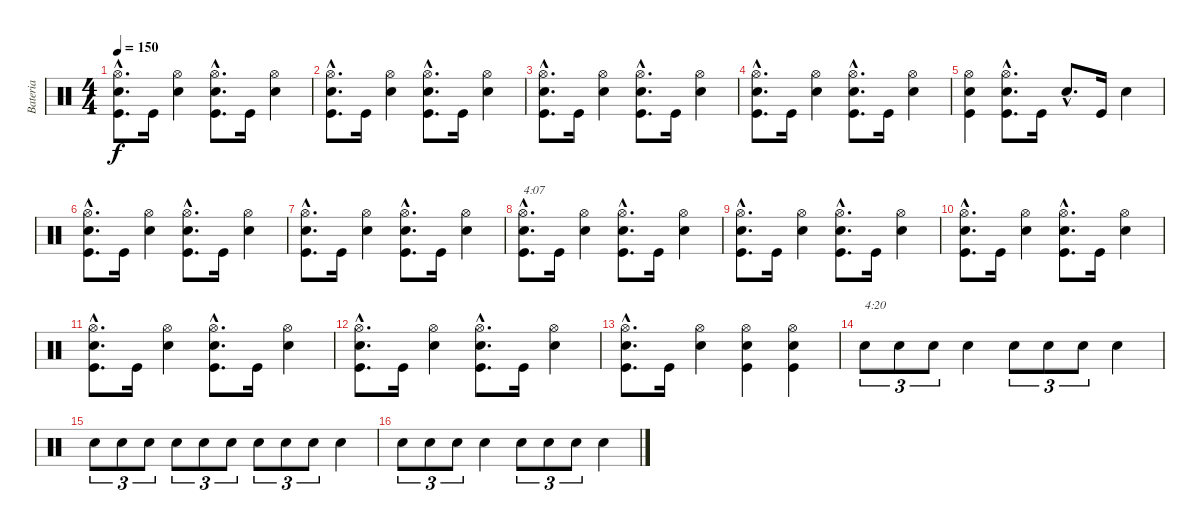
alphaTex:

\track ("Bateria" "Bateria") {instrument percussion}
\staff {score}
\articulation defaults
\ts (4 4)
\tempo 150
\clef neutral
\ks c
("Kick (hit)"{hac} "Snare (hit) 2"{hac} "Hi-Hat (open)"{hac}).8{d dy f} "Kick (hit)".16 ("Snare (hit) 2" "Hi-Hat (open)").4 ("Kick (hit)"{hac} "Snare (hit) 2"{hac} "Hi-Hat (open)"{hac}).8{d} "Kick (hit)".16 ("Snare (hit) 2" "Hi-Hat (open)").4 |
("Kick (hit)"{hac} "Snare (hit) 2"{hac} "Hi-Hat (open)"{hac}).8{d} "Kick (hit)".16 ("Snare (hit) 2" "Hi-Hat (open)").4 ("Kick (hit)"{hac} "Snare (hit) 2"{hac} "Hi-Hat (open)"{hac}).8{d} "Kick (hit)".16 ("Snare (hit) 2" "Hi-Hat (open)").4 |
("Kick (hit)"{hac} "Snare (hit) 2"{hac} "Hi-Hat (open)"{hac}).8{d} "Kick (hit)".16 ("Snare (hit) 2" "Hi-Hat (open)").4 ("Kick (hit)"{hac} "Snare (hit) 2"{hac} "Hi-Hat (open)"{hac}).8{d} "Kick (hit)".16 ("Snare (hit) 2" "Hi-Hat (open)").4 |
("Kick (hit)"{hac} "Snare (hit) 2"{hac} "Hi-Hat (open)"{hac}).8{d} "Kick (hit)".16 ("Snare (hit) 2" "Hi-Hat (open)").4 ("Kick (hit)"{hac} "Snare (hit) 2"{hac} "Hi-Hat (open)"{hac}).8{d} "Kick (hit)".16 ("Snare (hit) 2" "Hi-Hat (open)").4 |
("Kick (hit)" "Snare (hit) 2" "Hi-Hat (open)").4 ("Kick (hit)"{hac} "Snare (hit) 2"{hac} "Hi-Hat (open)"{hac}).8{d} "Kick (hit)".16 "Snare (hit) 2"{hac}.8{d} "Kick (hit)".16 "Snare (hit) 2".4 |
("Kick (hit)"{hac} "Snare (hit) 2"{hac} "Hi-Hat (open)"{hac}).8{d} "Kick (hit)".16 ("Snare (hit) 2" "Hi-Hat (open)").4 ("Kick (hit)"{hac} "Snare (hit) 2"{hac} "Hi-Hat (open)"{hac}).8{d} "Kick (hit)".16 ("Snare (hit) 2" "Hi-Hat (open)").4 |
("Kick (hit)"{hac} "Snare (hit) 2"{hac} "Hi-Hat (open)"{hac}).8{d} "Kick (hit)".16 ("Snare (hit) 2" "Hi-Hat (open)").4 ("Kick (hit)"{hac} "Snare (hit) 2"{hac} "Hi-Hat (open)"{hac}).8{d} "Kick (hit)".16 ("Snare (hit) 2" "Hi-Hat (open)").4 |
("Kick (hit)"{hac} "Snare (hit) 2"{hac} "Hi-Hat (open)"{hac}).8{d txt "4:07"} "Kick (hit)".16 ("Snare (hit) 2" "Hi-Hat (open)").4 ("Kick (hit)"{hac} "Snare (hit) 2"{hac} "Hi-Hat (open)"{hac}).8{d} "Kick (hit)".16 ("Snare (hit) 2" "Hi-Hat (open)").4 |
("Kick (hit)"{hac} "Snare (hit) 2"{hac} "Hi-Hat (open)"{hac}).8{d} "Kick (hit)".16 ("Snare (hit) 2" "Hi-Hat (open)").4 ("Kick (hit)"{hac} "Snare (hit) 2"{hac} "Hi-Hat (open)"{hac}).8{d} "Kick (hit)".16 ("Snare (hit) 2" "Hi-Hat (open)").4 |
("Kick (hit)"{hac} "Snare (hit) 2"{hac} "Hi-Hat (open)"{hac}).8{d} "Kick (hit)".16 ("Snare (hit) 2" "Hi-Hat (open)").4 ("Kick (hit)"{hac} "Snare (hit) 2"{hac} "Hi-Hat (open)"{hac}).8{d} "Kick (hit)".16 ("Snare (hit) 2" "Hi-Hat (open)").4 |
("Kick (hit)"{hac} "Snare (hit) 2"{hac} "Hi-Hat (open)"{hac}).8{d} "Kick (hit)".16 ("Snare (hit) 2" "Hi-Hat (open)").4 ("Kick (hit)"{hac} "Snare (hit) 2"{hac} "Hi-Hat (open)"{hac}).8{d} "Kick (hit)".16 ("Snare (hit) 2" "Hi-Hat (open)").4 |
("Kick (hit)"{hac} "Snare (hit) 2"{hac} "Hi-Hat (open)"{hac}).8{d} "Kick (hit)".16 ("Snare (hit) 2" "Hi-Hat (open)").4 ("Kick (hit)"{hac} "Snare (hit) 2"{hac} "Hi-Hat (open)"{hac}).8{d} "Kick (hit)".16 ("Snare (hit) 2" "Hi-Hat (open)").4 |
("Kick (hit)"{hac} "Snare (hit) 2"{hac} "Hi-Hat (open)"{hac}).8{d} "Kick (hit)".16 ("Snare (hit) 2" "Hi-Hat (open)").4 ("Kick (hit)" "Snare (hit) 2" "Hi-Hat (open)").4 ("Kick (hit)" "Snare (hit) 2" "Hi-Hat (open)").4 |
"Snare (hit) 2".8{tu (3 2) txt "4:20"} "Snare (hit) 2".8{tu (3 2)} "Snare (hit) 2".8{tu (3 2)} "Snare (hit) 2".4 "Snare (hit) 2".8{tu (3 2)} "Snare (hit) 2".8{tu (3 2)} "Snare (hit) 2".8{tu (3 2)} "Snare (hit) 2".4 |
"Snare (hit) 2".8{tu (3 2)} "Snare (hit) 2".8{tu (3 2)} "Snare (hit) 2".8{tu (3 2)} "Snare (hit) 2".8{tu (3 2)} "Snare (hit) 2".8{tu (3 2)} "Snare (hit) 2".8{tu (3 2)} "Snare (hit) 2".8{tu (3 2)} "Snare (hit) 2".8{tu (3 2)} "Snare (hit) 2".8{tu (3 2)} "Snare (hit) 2".4 |
"Snare (hit) 2".8{tu (3 2)} "Snare (hit) 2".8{tu (3 2)} "Snare (hit) 2".8{tu (3 2)} "Snare (hit) 2".4 "Snare (hit) 2".8{tu (3 2)} "Snare (hit) 2".8{tu (3 2)} "Snare (hit) 2".8{tu (3 2)} "Snare (hit) 2".4
